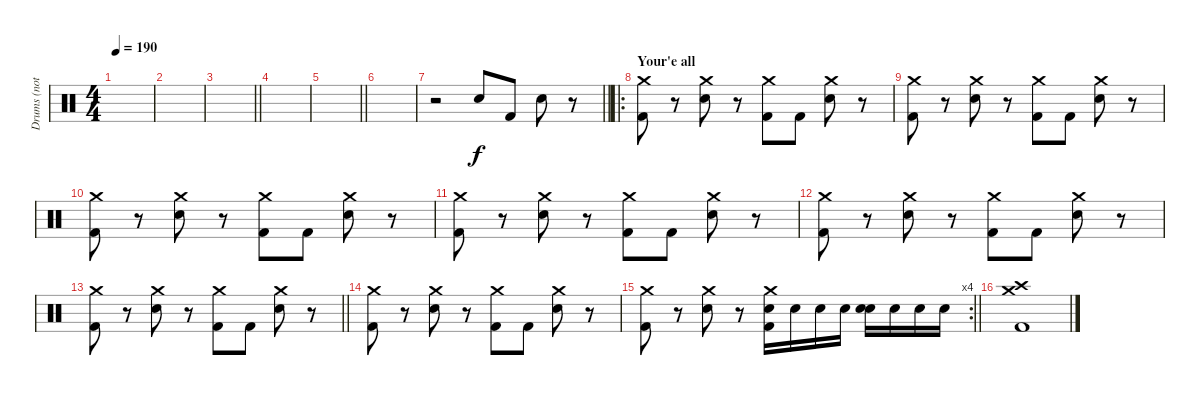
\track ("Drums (not correct)" "Drums (not") {instrument percussion}
\staff {score}
\articulation defaults
\ts (4 4)
\tempo 190
\clef neutral
\ks c
|
|
\barLineRight lightlight
|
|
\barLineRight lightlight
|
|
\barLineRight lightlight
r.2 "Electric Snare (hit)".8 "Kick (hit) 2".8 "Electric Snare (hit)".8 r.8 |
\ro
\section ("" "Your'e all")
("Crash medium (hit)" "Kick (hit) 2").8 r.8 ("Crash medium (hit)" "Electric Snare (hit)").8 r.8 ("Crash medium (hit)" "Kick (hit) 2").8 "Kick (hit) 2".8 ("Crash medium (hit)" "Electric Snare (hit)").8 r.8 |
("Crash medium (hit)" "Kick (hit) 2").8 r.8 ("Crash medium (hit)" "Electric Snare (hit)").8 r.8 ("Crash medium (hit)" "Kick (hit) 2").8 "Kick (hit) 2".8 ("Crash medium (hit)" "Electric Snare (hit)").8 r.8 |
("Crash medium (hit)" "Kick (hit) 2").8 r.8 ("Crash medium (hit)" "Electric Snare (hit)").8 r.8 ("Crash medium (hit)" "Kick (hit) 2").8 "Kick (hit) 2".8 ("Crash medium (hit)" "Electric Snare (hit)").8 r.8 |
("Crash medium (hit)" "Kick (hit) 2").8 r.8 ("Crash medium (hit)" "Electric Snare (hit)").8 r.8 ("Crash medium (hit)" "Kick (hit) 2").8 "Kick (hit) 2".8 ("Crash medium (hit)" "Electric Snare (hit)").8 r.8 |
("Crash medium (hit)" "Kick (hit) 2").8 r.8 ("Crash medium (hit)" "Electric Snare (hit)").8 r.8 ("Crash medium (hit)" "Kick (hit) 2").8 "Kick (hit) 2".8 ("Crash medium (hit)" "Electric Snare (hit)").8 r.8 |
\barLineRight lightlight
("Crash medium (hit)" "Kick (hit) 2").8 r.8 ("Crash medium (hit)" "Electric Snare (hit)").8 r.8 ("Crash medium (hit)" "Kick (hit) 2").8 "Kick (hit) 2".8 ("Crash medium (hit)" "Electric Snare (hit)").8 r.8 |
("Crash medium (hit)" "Kick (hit) 2").8 r.8 ("Crash medium (hit)" "Electric Snare (hit)").8 r.8 ("Crash medium (hit)" "Kick (hit) 2").8 "Kick (hit) 2".8 ("Crash medium (hit)" "Electric Snare (hit)").8 r.8 |
\rc 4
\barLineRight lightlight
("Crash medium (hit)" "Kick (hit) 2").8 r.8 ("Crash medium (hit)" "Electric Snare (hit)").8 r.8 ("Crash medium (hit)" "Electric Snare (hit)" "Kick (hit) 2").16 "Electric Snare (hit)".16 "Electric Snare (hit)".16 "Electric Snare (hit)".16 ("Electric Snare (hit)" "Electric Snare (hit)").16 "Electric Snare (hit)".16 "Electric Snare (hit)".16 "Electric Snare (hit)".16 |
("Crash high (hit)" "Crash medium (hit)" "Kick (hit) 2").1
